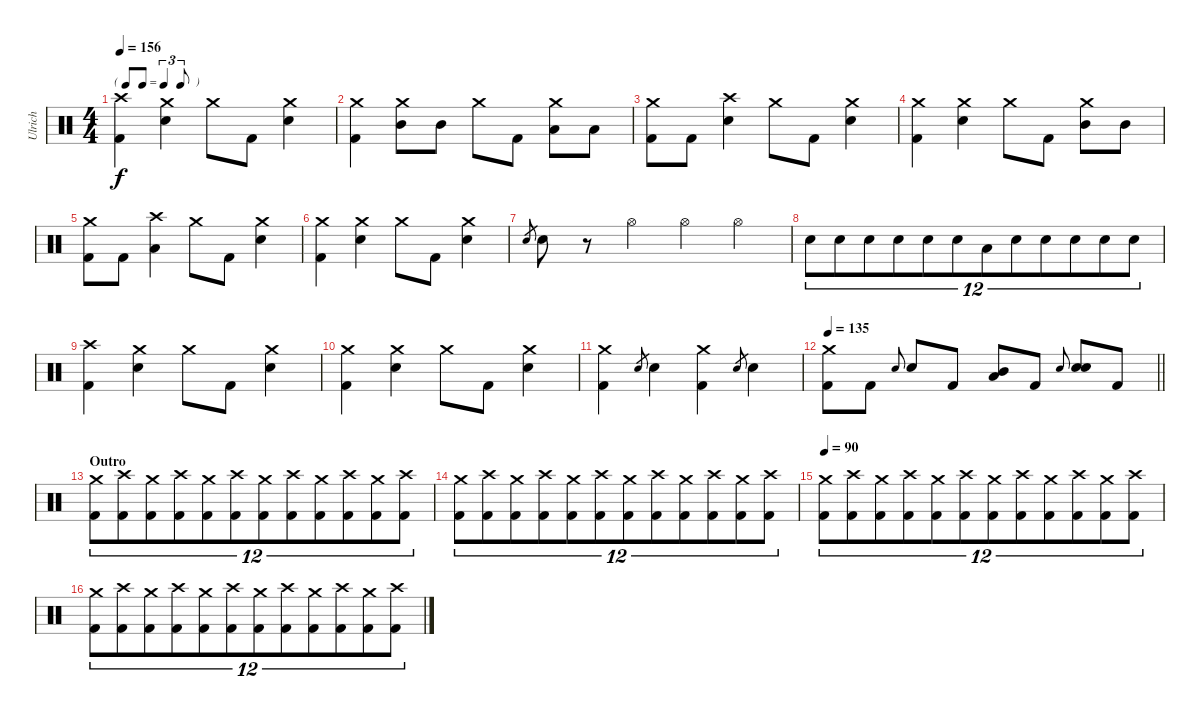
\track ("Ulrich" "Ulrich") {instrument percussion}
\staff {score}
\articulation defaults
\ts (4 4)
\tf triplet8th
\section ("" "")
\tempo 156
\clef neutral
\ks c
("Crash high (hit)" "Kick (hit) 2").4{dy f} ("Crash medium (hit)" "Electric Snare (hit)").4 "Crash medium (hit)".8 "Kick (hit) 2".8 ("Crash medium (hit)" "Electric Snare (hit)").4 |
("Crash medium (hit)" "Kick (hit) 2").4 ("Crash medium (hit)" "Mid Tom (hit)").8 "Mid Tom (hit)".8 "Crash medium (hit)".8 "Kick (hit) 2".8 ("Crash medium (hit)" "Low Tom (hit)").8 "Low Tom (hit)".8 |
("Crash medium (hit)" "Kick (hit) 2").8 "Kick (hit) 2".8 ("Crash high (hit)" "Electric Snare (hit)").4 "Crash medium (hit)".8 "Kick (hit) 2".8 ("Crash medium (hit)" "Electric Snare (hit)").4 |
("Crash medium (hit)" "Kick (hit) 2").4 ("Crash medium (hit)" "Electric Snare (hit)").4 "Crash medium (hit)".8 "Kick (hit) 2".8 ("Crash medium (hit)" "Mid Tom (hit)").8 "Mid Tom (hit)".8 |
("Crash medium (hit)" "Kick (hit) 2").8 "Kick (hit) 2".8 ("Crash high (hit)" "Low Tom (hit)").4 "Crash medium (hit)".8 "Kick (hit) 2".8 ("Crash medium (hit)" "Electric Snare (hit)").4 |
("Crash medium (hit)" "Kick (hit) 2").4 ("Crash medium (hit)" "Electric Snare (hit)").4 "Crash medium (hit)".8 "Kick (hit) 2".8 ("Crash medium (hit)" "Electric Snare (hit)").4 |
"Electric Snare (hit)".8{gr} "Electric Snare (hit)".8 r.8 "Hi-Hat (open)".4 "Hi-Hat (open)".4 "Hi-Hat (open)".4 |
"Electric Snare (hit)".8{tu (12 8)} "Electric Snare (hit)".8{tu (12 8)} "Electric Snare (hit)".8{tu (12 8)} "Electric Snare (hit)".8{tu (12 8)} "Electric Snare (hit)".8{tu (12 8)} "Electric Snare (hit)".8{tu (12 8)} "Low Tom (hit)".8{tu (12 8)} "Electric Snare (hit)".8{tu (12 8)} "Electric Snare (hit)".8{tu (12 8)} "Electric Snare (hit)".8{tu (12 8)} "Electric Snare (hit)".8{tu (12 8)} "Electric Snare (hit)".8{tu (12 8)} |
("Crash high (hit)" "Kick (hit) 2").4 ("Crash medium (hit)" "Electric Snare (hit)").4 "Crash medium (hit)".8 "Kick (hit) 2".8 ("Crash medium (hit)" "Electric Snare (hit)").4 |
("Crash medium (hit)" "Kick (hit) 2").4 ("Crash medium (hit)" "Electric Snare (hit)").4 "Crash medium (hit)".8 "Kick (hit) 2".8 ("Crash medium (hit)" "Electric Snare (hit)").4 |
("Crash medium (hit)" "Kick (hit) 2").4 "Electric Snare (hit)".8{gr} "Electric Snare (hit)".4 ("Crash medium (hit)" "Kick (hit) 2").4 "Electric Snare (hit)".8{gr} "Electric Snare (hit)".4 |
\tempo 135
\barLineRight lightlight
("Crash medium (hit)" "Kick (hit) 2").8 "Kick (hit) 2".8 "Electric Snare (hit)".8{gr onbeat} "Electric Snare (hit)".8 "Kick (hit) 2".8 ("Mid Tom (hit)" "Low Tom (hit)").8 "Kick (hit) 2".8 "Electric Snare (hit)".8{gr onbeat} ("Electric Snare (hit)" "Snare (hit)").8 "Kick (hit) 2".8 |
\section ("" "Outro")
("Crash medium (hit)" "Kick (hit) 2").8{tu (12 8)} ("Crash high (hit)" "Kick (hit) 2").8{tu (12 8)} ("Crash medium (hit)" "Kick (hit) 2").8{tu (12 8)} ("Crash high (hit)" "Kick (hit) 2").8{tu (12 8)} ("Crash medium (hit)" "Kick (hit) 2").8{tu (12 8)} ("Crash high (hit)" "Kick (hit) 2").8{tu (12 8)} ("Crash medium (hit)" "Kick (hit) 2").8{tu (12 8)} ("Crash high (hit)" "Kick (hit) 2").8{tu (12 8)} ("Crash medium (hit)" "Kick (hit) 2").8{tu (12 8)} ("Crash high (hit)" "Kick (hit) 2").8{tu (12 8)} ("Crash medium (hit)" "Kick (hit) 2").8{tu (12 8)} ("Crash high (hit)" "Kick (hit) 2").8{tu (12 8)} |
("Crash medium (hit)" "Kick (hit) 2").8{tu (12 8)} ("Crash high (hit)" "Kick (hit) 2").8{tu (12 8)} ("Crash medium (hit)" "Kick (hit) 2").8{tu (12 8)} ("Crash high (hit)" "Kick (hit) 2").8{tu (12 8)} ("Crash medium (hit)" "Kick (hit) 2").8{tu (12 8)} ("Crash high (hit)" "Kick (hit) 2").8{tu (12 8)} ("Crash medium (hit)" "Kick (hit) 2").8{tu (12 8)} ("Crash high (hit)" "Kick (hit) 2").8{tu (12 8)} ("Crash medium (hit)" "Kick (hit) 2").8{tu (12 8)} ("Crash high (hit)" "Kick (hit) 2").8{tu (12 8)} ("Crash medium (hit)" "Kick (hit) 2").8{tu (12 8)} ("Crash high (hit)" "Kick (hit) 2").8{tu (12 8)} |
\tempo 90
("Crash medium (hit)" "Kick (hit) 2").8{tu (12 8)} ("Crash high (hit)" "Kick (hit) 2").8{tu (12 8)} ("Crash medium (hit)" "Kick (hit) 2").8{tu (12 8)} ("Crash high (hit)" "Kick (hit) 2").8{tu (12 8)} ("Crash medium (hit)" "Kick (hit) 2").8{tu (12 8)} ("Crash high (hit)" "Kick (hit) 2").8{tu (12 8)} ("Crash medium (hit)" "Kick (hit) 2").8{tu (12 8)} ("Crash high (hit)" "Kick (hit) 2").8{tu (12 8)} ("Crash medium (hit)" "Kick (hit) 2").8{tu (12 8)} ("Crash high (hit)" "Kick (hit) 2").8{tu (12 8)} ("Crash medium (hit)" "Kick (hit) 2").8{tu (12 8)} ("Crash high (hit)" "Kick (hit) 2").8{tu (12 8)} |
("Crash medium (hit)" "Kick (hit) 2").8{tu (12 8)} ("Crash high (hit)" "Kick (hit) 2").8{tu (12 8)} ("Crash medium (hit)" "Kick (hit) 2").8{tu (12 8)} ("Crash high (hit)" "Kick (hit) 2").8{tu (12 8)} ("Crash medium (hit)" "Kick (hit) 2").8{tu (12 8)} ("Crash high (hit)" "Kick (hit) 2").8{tu (12 8)} ("Crash medium (hit)" "Kick (hit) 2").8{tu (12 8)} ("Crash high (hit)" "Kick (hit) 2").8{tu (12 8)} ("Crash medium (hit)" "Kick (hit) 2").8{tu (12 8)} ("Crash high (hit)" "Kick (hit) 2").8{tu (12 8)} ("Crash medium (hit)" "Kick (hit) 2").8{tu (12 8)} ("Crash high (hit)" "Kick (hit) 2").8{tu (12 8)}
